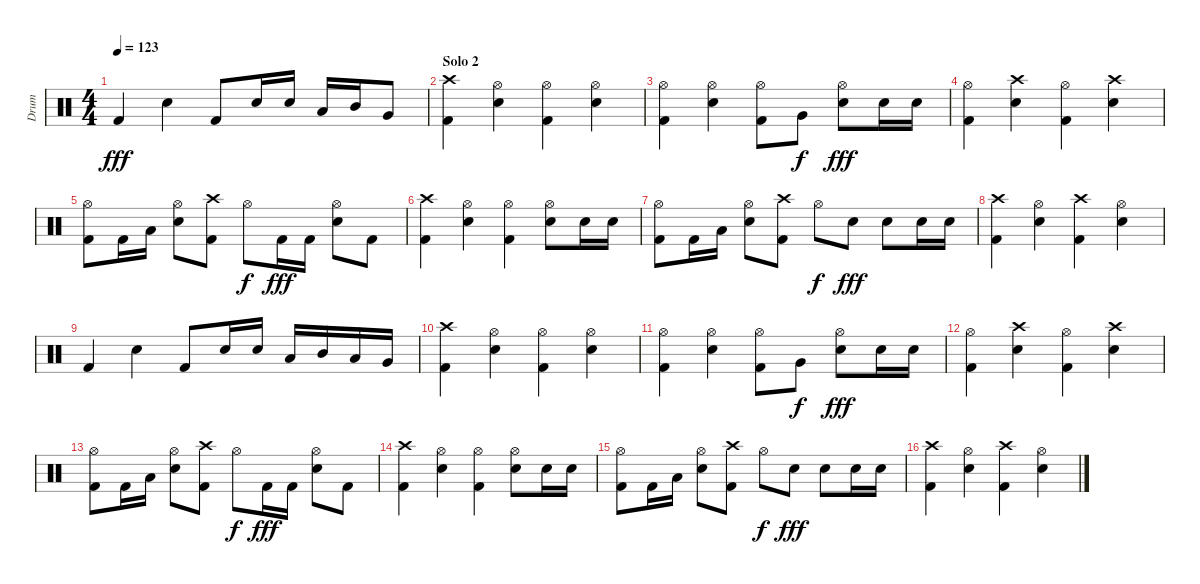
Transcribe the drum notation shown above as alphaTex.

\track ("Drum" "Drum") {instrument percussion}
\staff {score}
\articulation defaults
\ts (4 4)
\tempo 123
\clef neutral
\ks c "Kick (hit) 2".4{dy fff} "Electric Snare (hit)".4 "Kick (hit) 2".8 "Electric Snare (hit)".16 "Electric Snare (hit)".16 "Low Tom (hit)".16 "Mid Tom (hit)".16 "Very Low Tom (hit)".8
|
\section ("" "Solo 2")
("Crash high (hit)" "Kick (hit) 2").4 ("Hi-Hat (open)" "Electric Snare (hit)").4 ("Hi-Hat (open)" "Kick (hit) 2").4 ("Hi-Hat (open)" "Electric Snare (hit)").4 |
("Hi-Hat (open)" "Kick (hit) 2").4 ("Hi-Hat (open)" "Electric Snare (hit)").4 ("Hi-Hat (open)" "Kick (hit) 2").8 "Very Low Tom (hit)".8{dy f} ("Hi-Hat (open)" "Electric Snare (hit)").8{dy fff} "Electric Snare (hit)".16 "Electric Snare (hit)".16 |
("Hi-Hat (open)" "Kick (hit) 2").4 ("Crash high (hit)" "Electric Snare (hit)").4 ("Hi-Hat (open)" "Kick (hit) 2").4 ("Crash high (hit)" "Electric Snare (hit)").4 |
("Hi-Hat (open)" "Kick (hit) 2").8 "Kick (hit) 2".16 "Low Tom (hit)".16 ("Hi-Hat (open)" "Electric Snare (hit)").8 ("Crash high (hit)" "Kick (hit) 2").8 "Hi-Hat (open)".8{dy f} "Kick (hit) 2".16{dy fff} "Kick (hit) 2".16 ("Hi-Hat (open)" "Electric Snare (hit)").8 "Kick (hit) 2".8 |
("Crash high (hit)" "Kick (hit) 2").4 ("Hi-Hat (open)" "Electric Snare (hit)").4 ("Hi-Hat (open)" "Kick (hit) 2").4 ("Hi-Hat (open)" "Electric Snare (hit)").8 "Electric Snare (hit)".16 "Electric Snare (hit)".16 |
("Hi-Hat (open)" "Kick (hit) 2").8 "Kick (hit) 2".16 "Low Tom (hit)".16 ("Hi-Hat (open)" "Electric Snare (hit)").8 ("Crash high (hit)" "Kick (hit) 2").8 "Hi-Hat (open)".8{dy f} "Electric Snare (hit)".8{dy fff} "Electric Snare (hit)".8 "Electric Snare (hit)".16 "Electric Snare (hit)".16 |
("Crash high (hit)" "Kick (hit) 2").4 ("Hi-Hat (open)" "Electric Snare (hit)").4 ("Crash high (hit)" "Kick (hit) 2").4 ("Hi-Hat (open)" "Electric Snare (hit)").4 |
"Kick (hit) 2".4 "Electric Snare (hit)".4 "Kick (hit) 2".8 "Electric Snare (hit)".16 "Electric Snare (hit)".16 "Low Tom (hit)".16 "Mid Tom (hit)".16 "Low Tom (hit)".16 "Very Low Tom (hit)".16 |
("Crash high (hit)" "Kick (hit) 2").4{volume 8} ("Hi-Hat (open)" "Electric Snare (hit)").4 ("Hi-Hat (open)" "Kick (hit) 2").4 ("Hi-Hat (open)" "Electric Snare (hit)").4 |
("Hi-Hat (open)" "Kick (hit) 2").4 ("Hi-Hat (open)" "Electric Snare (hit)").4 ("Hi-Hat (open)" "Kick (hit) 2").8 "Very Low Tom (hit)".8{dy f} ("Hi-Hat (open)" "Electric Snare (hit)").8{dy fff} "Electric Snare (hit)".16 "Electric Snare (hit)".16 |
("Hi-Hat (open)" "Kick (hit) 2").4 ("Crash high (hit)" "Electric Snare (hit)").4 ("Hi-Hat (open)" "Kick (hit) 2").4 ("Crash high (hit)" "Electric Snare (hit)").4 |
("Hi-Hat (open)" "Kick (hit) 2").8 "Kick (hit) 2".16 "Low Tom (hit)".16 ("Hi-Hat (open)" "Electric Snare (hit)").8 ("Crash high (hit)" "Kick (hit) 2").8 "Hi-Hat (open)".8{dy f} "Kick (hit) 2".16{dy fff} "Kick (hit) 2".16 ("Hi-Hat (open)" "Electric Snare (hit)").8 "Kick (hit) 2".8 |
("Crash high (hit)" "Kick (hit) 2").4{volume 4} ("Hi-Hat (open)" "Electric Snare (hit)").4 ("Hi-Hat (open)" "Kick (hit) 2").4 ("Hi-Hat (open)" "Electric Snare (hit)").8 "Electric Snare (hit)".16 "Electric Snare (hit)".16 |
("Hi-Hat (open)" "Kick (hit) 2").8 "Kick (hit) 2".16 "Low Tom (hit)".16 ("Hi-Hat (open)" "Electric Snare (hit)").8 ("Crash high (hit)" "Kick (hit) 2").8 "Hi-Hat (open)".8{dy f} "Electric Snare (hit)".8{dy fff} "Electric Snare (hit)".8 "Electric Snare (hit)".16 "Electric Snare (hit)".16 |
("Crash high (hit)" "Kick (hit) 2").4{volume 2} ("Hi-Hat (open)" "Electric Snare (hit)").4 ("Crash high (hit)" "Kick (hit) 2").4 ("Hi-Hat (open)" "Electric Snare (hit)").4
